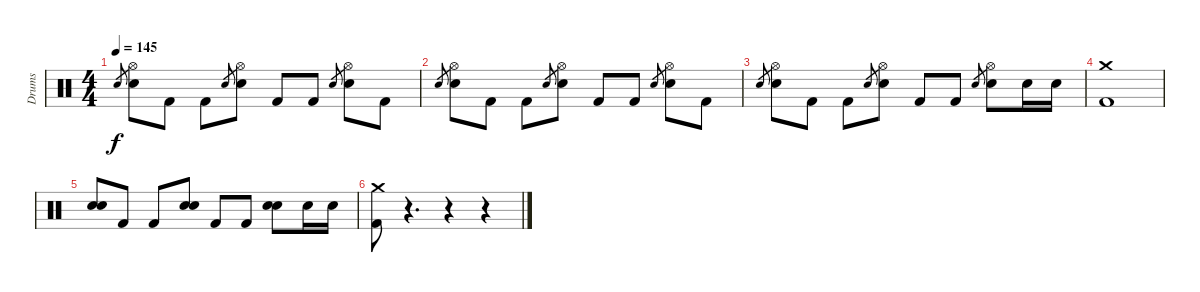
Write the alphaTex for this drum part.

\track ("Drums" "Drums") {instrument percussion}
\staff {score}
\articulation defaults
\ts (4 4)
\tempo 145
\clef neutral
\ks c "Electric Snare (hit)".8{gr dy f}
("Hi-Hat (open)" "Electric Snare (hit)").8 "Kick (hit) 2".8 "Kick (hit) 2".8 "Electric Snare (hit)".8{gr} ("Hi-Hat (open)" "Electric Snare (hit)").8 "Kick (hit) 2".8 "Kick (hit) 2".8 "Electric Snare (hit)".8{gr} ("Hi-Hat (open)" "Electric Snare (hit)").8 "Kick (hit) 2".8 |
"Electric Snare (hit)".8{gr} ("Hi-Hat (open)" "Electric Snare (hit)").8 "Kick (hit) 2".8 "Kick (hit) 2".8 "Electric Snare (hit)".8{gr} ("Hi-Hat (open)" "Electric Snare (hit)").8 "Kick (hit) 2".8 "Kick (hit) 2".8 "Electric Snare (hit)".8{gr} ("Hi-Hat (open)" "Electric Snare (hit)").8 "Kick (hit) 2".8 |
"Electric Snare (hit)".8{gr} ("Hi-Hat (open)" "Electric Snare (hit)").8 "Kick (hit) 2".8 "Kick (hit) 2".8 "Electric Snare (hit)".8{gr} ("Hi-Hat (open)" "Electric Snare (hit)").8 "Kick (hit) 2".8 "Kick (hit) 2".8 "Electric Snare (hit)".8{gr} ("Hi-Hat (open)" "Electric Snare (hit)").8 "Electric Snare (hit)".16 "Electric Snare (hit)".16 |
("Crash medium (hit)" "Kick (hit) 2").1 |
("Electric Snare (hit)" "Electric Snare (hit)").8{bd 240} "Kick (hit) 2".8 "Kick (hit) 2".8 ("Electric Snare (hit)" "Electric Snare (hit)").8{bd 240} "Kick (hit) 2".8 "Kick (hit) 2".8 ("Electric Snare (hit)" "Electric Snare (hit)").8{bd 240} "Electric Snare (hit)".16 "Electric Snare (hit)".16 |
("Crash medium (hit)" "Kick (hit) 2").8 r.4{d} r.4 r.4
